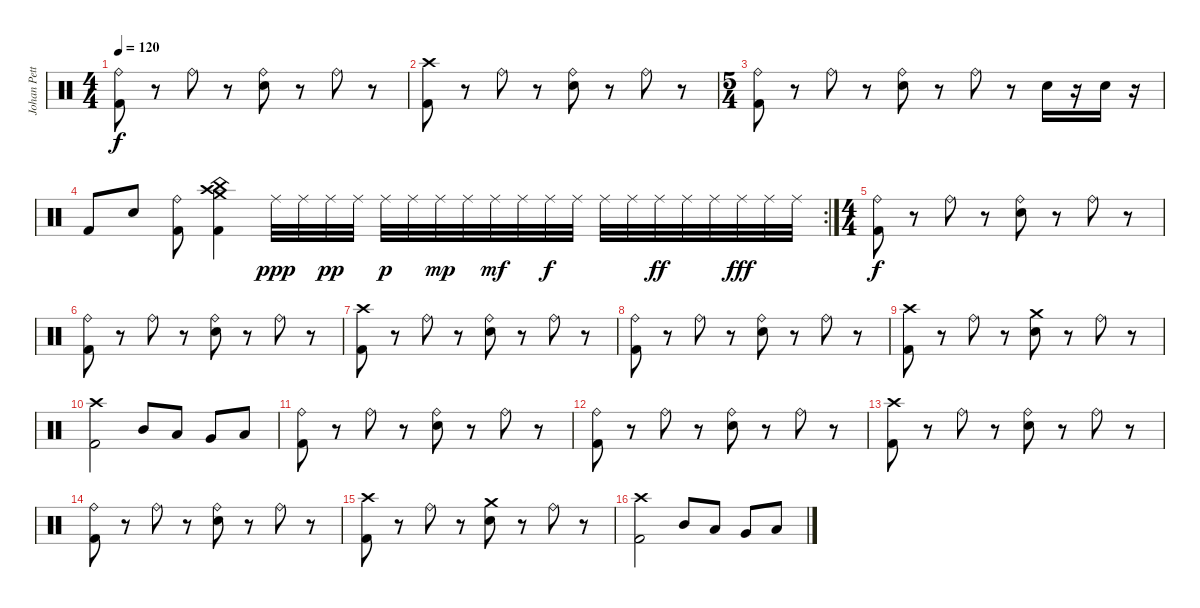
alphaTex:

\track ("Johan Petterson" "Johan Pett") {instrument percussion}
\staff {score}
\articulation defaults
\ts (4 4)
\tempo 120
\clef neutral
\ks c
("Ride (bell)" "Kick (hit) 2").8{dy f} r.8 "Ride (bell)".8 r.8 ("Ride (bell)" "Snare (hit) 2").8 r.8 "Ride (bell)".8 r.8 |
("Crash high (hit)" "Kick (hit) 2").8 r.8 "Ride (bell)".8 r.8 ("Ride (bell)" "Snare (hit) 2").8 r.8 "Ride (bell)".8 r.8 |
\ts (5 4)
("Ride (bell)" "Kick (hit) 2").8 r.8 "Ride (bell)".8 r.8 ("Ride (bell)" "Snare (hit) 2").8 r.8 "Ride (bell)".8 r.8 "Snare (hit) 2".16 r.16 "Snare (hit) 2".16 r.16 |
\rc 2 "Kick (hit) 2".8 "Snare (hit) 2".8
("Ride (bell)" "Kick (hit) 2").8 ("Crash high (hit)" "Crash medium (hit)" "China (hit)" "Kick (hit) 2").4 "Ride (middle)".32{dy ppp} "Ride (middle)".32 "Ride (middle)".32{dy pp} "Ride (middle)".32 "Ride (middle)".32{dy p} "Ride (middle)".32 "Ride (middle)".32{dy mp} "Ride (middle)".32 "Ride (middle)".32{dy mf} "Ride (middle)".32 "Ride (middle)".32{dy f} "Ride (middle)".32 "Ride (middle)".32 "Ride (middle)".32 "Ride (middle)".32{dy ff} "Ride (middle)".32 "Ride (middle)".32 "Ride (middle)".32{dy fff} "Ride (middle)".32 "Ride (middle)".32 |
\ts (4 4)
("Ride (bell)" "Kick (hit) 2").8{dy f} r.8 "Ride (bell)".8 r.8 ("Ride (bell)" "Snare (hit) 2").8 r.8 "Ride (bell)".8 r.8 |
("Ride (bell)" "Kick (hit) 2").8 r.8 "Ride (bell)".8 r.8 ("Ride (bell)" "Snare (hit) 2").8 r.8 "Ride (bell)".8 r.8 |
("Crash high (hit)" "Kick (hit) 2").8 r.8 "Ride (bell)".8 r.8 ("Ride (bell)" "Snare (hit) 2").8 r.8 "Ride (bell)".8 r.8 |
("Ride (bell)" "Kick (hit) 2").8 r.8 "Ride (bell)".8 r.8 ("Ride (bell)" "Snare (hit) 2").8 r.8 "Ride (bell)".8 r.8 |
("Crash high (hit)" "Kick (hit) 2").8 r.8 "Ride (bell)".8 r.8 ("Crash medium (hit)" "Snare (hit) 2").8 r.8 "Ride (bell)".8 r.8 |
("Crash high (hit)" "Kick (hit) 2").2 "Mid Tom (hit)".8 "Low Tom (hit)".8 "Very Low Tom (hit)".8 "Low Floor Tom (hit)".8 |
("Ride (bell)" "Kick (hit) 2").8 r.8 "Ride (bell)".8 r.8 ("Ride (bell)" "Snare (hit) 2").8 r.8 "Ride (bell)".8 r.8 |
("Ride (bell)" "Kick (hit) 2").8 r.8 "Ride (bell)".8 r.8 ("Ride (bell)" "Snare (hit) 2").8 r.8 "Ride (bell)".8 r.8 |
("Crash high (hit)" "Kick (hit) 2").8 r.8 "Ride (bell)".8 r.8 ("Ride (bell)" "Snare (hit) 2").8 r.8 "Ride (bell)".8 r.8 |
("Ride (bell)" "Kick (hit) 2").8 r.8 "Ride (bell)".8 r.8 ("Ride (bell)" "Snare (hit) 2").8 r.8 "Ride (bell)".8 r.8 |
("Crash high (hit)" "Kick (hit) 2").8 r.8 "Ride (bell)".8 r.8 ("Crash medium (hit)" "Snare (hit) 2").8 r.8 "Ride (bell)".8 r.8 |
("Crash high (hit)" "Kick (hit) 2").2 "Mid Tom (hit)".8 "Low Tom (hit)".8 "Very Low Tom (hit)".8 "Low Floor Tom (hit)".8
